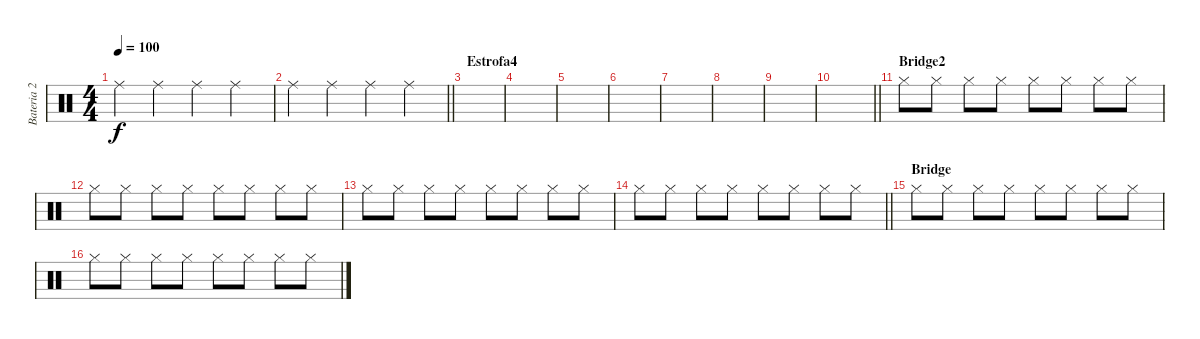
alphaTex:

\track ("Bateria 2" "Bateria 2") {instrument percussion}
\staff {score}
\articulation defaults
\ts (4 4)
\tempo 100
\clef neutral
\ks c "Ride (middle)".4{dy f} "Ride (middle)".4 "Ride (middle)".4 "Ride (middle)".4
|
\barLineRight lightlight "Ride (middle)".4 "Ride (middle)".4 "Ride (middle)".4 "Ride (middle)".4
|
\section ("" "Estrofa4")
|
|
|
|
|
|
|
\barLineRight lightlight
|
\section ("" "Bridge2")
"Hi-Hat (closed)".8 "Hi-Hat (closed)".8 "Hi-Hat (closed)".8 "Hi-Hat (closed)".8 "Hi-Hat (closed)".8 "Hi-Hat (closed)".8 "Hi-Hat (closed)".8 "Hi-Hat (closed)".8 |
"Hi-Hat (closed)".8 "Hi-Hat (closed)".8 "Hi-Hat (closed)".8 "Hi-Hat (closed)".8 "Hi-Hat (closed)".8 "Hi-Hat (closed)".8 "Hi-Hat (closed)".8 "Hi-Hat (closed)".8 |
"Hi-Hat (closed)".8 "Hi-Hat (closed)".8 "Hi-Hat (closed)".8 "Hi-Hat (closed)".8 "Hi-Hat (closed)".8 "Hi-Hat (closed)".8 "Hi-Hat (closed)".8 "Hi-Hat (closed)".8 |
\barLineRight lightlight "Hi-Hat (closed)".8 "Hi-Hat (closed)".8 "Hi-Hat (closed)".8 "Hi-Hat (closed)".8 "Hi-Hat (closed)".8 "Hi-Hat (closed)".8 "Hi-Hat (closed)".8 "Hi-Hat (closed)".8
|
\section ("" "Bridge")
"Hi-Hat (closed)".8 "Hi-Hat (closed)".8 "Hi-Hat (closed)".8 "Hi-Hat (closed)".8 "Hi-Hat (closed)".8 "Hi-Hat (closed)".8 "Hi-Hat (closed)".8 "Hi-Hat (closed)".8 |
"Hi-Hat (closed)".8 "Hi-Hat (closed)".8 "Hi-Hat (closed)".8 "Hi-Hat (closed)".8 "Hi-Hat (closed)".8 "Hi-Hat (closed)".8 "Hi-Hat (closed)".8 "Hi-Hat (closed)".8
